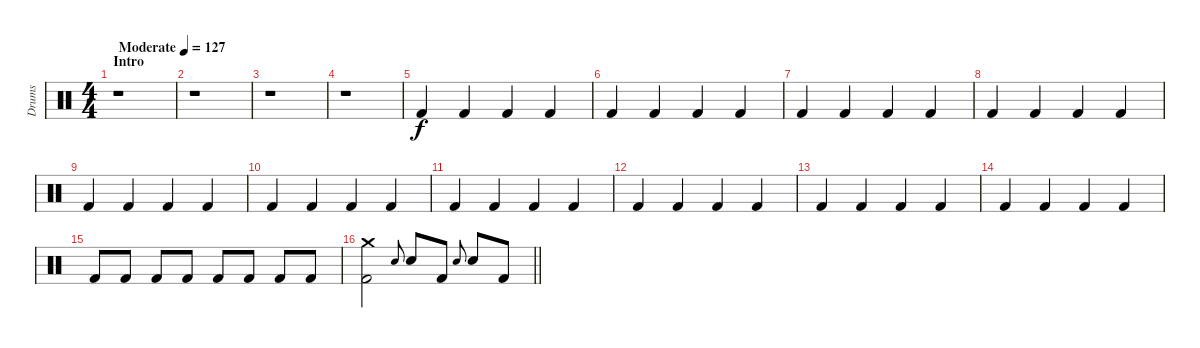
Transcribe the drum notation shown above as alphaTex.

\track ("Drums" "Drums") {instrument percussion}
\staff {score}
\articulation defaults
\ts (4 4)
\section ("" "Intro")
\tempo (127 "Moderate")
\clef neutral
\ks c
r.1{dy f} |
r.1 |
r.1 |
r.1 |
"Kick (hit) 2".4 "Kick (hit) 2".4 "Kick (hit) 2".4 "Kick (hit) 2".4 |
"Kick (hit) 2".4 "Kick (hit) 2".4 "Kick (hit) 2".4 "Kick (hit) 2".4 |
"Kick (hit) 2".4 "Kick (hit) 2".4 "Kick (hit) 2".4 "Kick (hit) 2".4 |
"Kick (hit) 2".4 "Kick (hit) 2".4 "Kick (hit) 2".4 "Kick (hit) 2".4 |
"Kick (hit) 2".4 "Kick (hit) 2".4 "Kick (hit) 2".4 "Kick (hit) 2".4 |
"Kick (hit) 2".4 "Kick (hit) 2".4 "Kick (hit) 2".4 "Kick (hit) 2".4 |
"Kick (hit) 2".4 "Kick (hit) 2".4 "Kick (hit) 2".4 "Kick (hit) 2".4 |
"Kick (hit) 2".4 "Kick (hit) 2".4 "Kick (hit) 2".4 "Kick (hit) 2".4 |
"Kick (hit) 2".4 "Kick (hit) 2".4 "Kick (hit) 2".4 "Kick (hit) 2".4 |
"Kick (hit) 2".4 "Kick (hit) 2".4 "Kick (hit) 2".4 "Kick (hit) 2".4 |
"Kick (hit) 2".8 "Kick (hit) 2".8 "Kick (hit) 2".8 "Kick (hit) 2".8 "Kick (hit) 2".8 "Kick (hit) 2".8 "Kick (hit) 2".8 "Kick (hit) 2".8 |
\barLineRight lightlight
("Crash medium (hit)" "Kick (hit) 2").2 "Electric Snare (hit)".8{gr onbeat} "Electric Snare (hit)".8 "Kick (hit) 2".8 "Electric Snare (hit)".8{gr onbeat} "Electric Snare (hit)".8 "Kick (hit) 2".8
